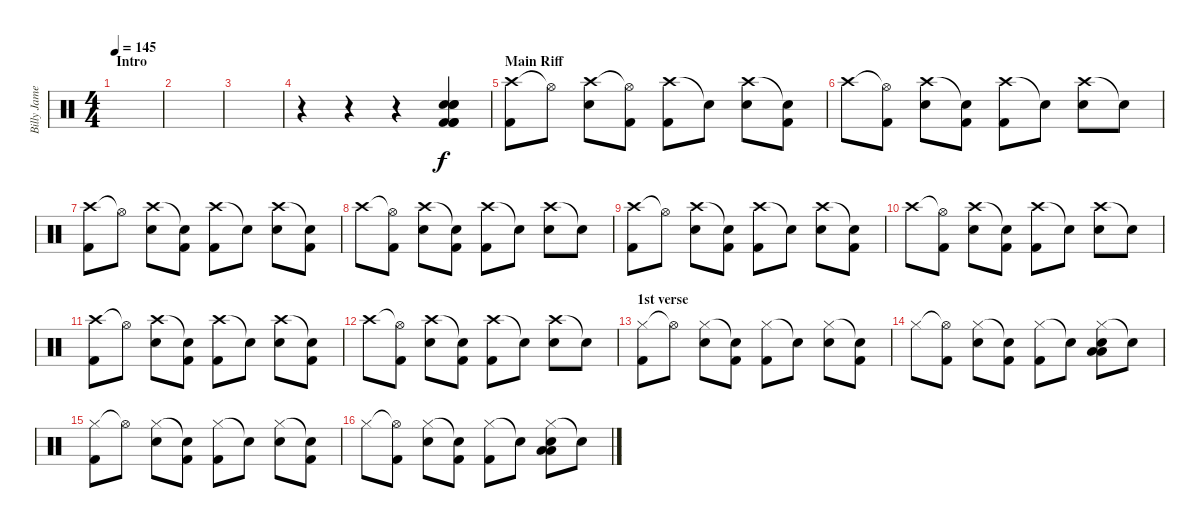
\track ("Billy James (Drums)" "Billy Jame") {instrument percussion}
\staff {score}
\articulation defaults
\ts (4 4)
\section ("" "Intro")
\tempo 145
\clef neutral
\ks c
|
|
|
r.4 r.4 r.4 ("Snare (hit) 2" "Kick (hit) 2" "Kick (hit) 2" "Kick (hit) 2" "Snare (hit) 2" "Snare (hit) 2").4 |
\section ("" "Main Riff")
("Crash high (hit)" "Kick (hit) 2").8 "Hi-Hat (open)"{t}.8 ("Crash high (hit)" "Snare (hit) 2").8 ("Hi-Hat (open)"{t} "Kick (hit) 2").8 ("Crash high (hit)" "Kick (hit) 2").8 "Snare (hit)"{t}.8 ("Crash high (hit)" "Snare (hit) 2").8 ("Snare (hit)"{t} "Kick (hit) 2").8 |
"Crash high (hit)".8 ("Hi-Hat (open)"{t} "Kick (hit) 2").8 ("Crash high (hit)" "Snare (hit) 2").8 ("Snare (hit)"{t} "Kick (hit) 2").8 ("Crash high (hit)" "Kick (hit) 2").8 "Snare (hit)"{t}.8 ("Crash high (hit)" "Snare (hit) 2").8 "Snare (hit)"{t}.8 |
("Crash high (hit)" "Kick (hit) 2").8 "Hi-Hat (open)"{t}.8 ("Crash high (hit)" "Snare (hit) 2").8 ("Snare (hit)"{t} "Kick (hit) 2").8 ("Crash high (hit)" "Kick (hit) 2").8 "Snare (hit)"{t}.8 ("Crash high (hit)" "Snare (hit) 2").8 ("Snare (hit)"{t} "Kick (hit) 2").8 |
"Crash high (hit)".8 ("Hi-Hat (open)"{t} "Kick (hit) 2").8 ("Crash high (hit)" "Snare (hit) 2").8 ("Snare (hit)"{t} "Kick (hit) 2").8 ("Crash high (hit)" "Kick (hit) 2").8 "Snare (hit)"{t}.8 ("Crash high (hit)" "Snare (hit) 2").8 "Snare (hit)"{t}.8 |
("Crash high (hit)" "Kick (hit) 2").8 "Hi-Hat (open)"{t}.8 ("Crash high (hit)" "Snare (hit) 2").8 ("Snare (hit)"{t} "Kick (hit) 2").8 ("Crash high (hit)" "Kick (hit) 2").8 "Snare (hit)"{t}.8 ("Crash high (hit)" "Snare (hit) 2").8 ("Snare (hit)"{t} "Kick (hit) 2").8 |
"Crash high (hit)".8 ("Hi-Hat (open)"{t} "Kick (hit) 2").8 ("Crash high (hit)" "Snare (hit) 2").8 ("Snare (hit)"{t} "Kick (hit) 2").8 ("Crash high (hit)" "Kick (hit) 2").8 "Snare (hit)"{t}.8 ("Crash high (hit)" "Snare (hit) 2").8 "Snare (hit)"{t}.8 |
("Crash high (hit)" "Kick (hit) 2").8 "Hi-Hat (open)"{t}.8 ("Crash high (hit)" "Snare (hit) 2").8 ("Snare (hit)"{t} "Kick (hit) 2").8 ("Crash high (hit)" "Kick (hit) 2").8 "Snare (hit)"{t}.8 ("Crash high (hit)" "Snare (hit) 2").8 ("Snare (hit)"{t} "Kick (hit) 2").8 |
"Crash high (hit)".8 ("Hi-Hat (open)"{t} "Kick (hit) 2").8 ("Crash high (hit)" "Snare (hit) 2").8 ("Snare (hit)"{t} "Kick (hit) 2").8 ("Crash high (hit)" "Kick (hit) 2").8 "Snare (hit)"{t}.8 ("Crash high (hit)" "Snare (hit) 2").8 "Snare (hit)"{t}.8 |
\section ("" "1st verse")
("Hi-Hat (closed)" "Kick (hit) 2").8 "Hi-Hat (open)"{t}.8 ("Hi-Hat (closed)" "Snare (hit) 2").8 ("Snare (hit)"{t} "Kick (hit) 2").8 ("Hi-Hat (closed)" "Kick (hit) 2").8 "Snare (hit)"{t}.8 ("Hi-Hat (closed)" "Snare (hit) 2").8 ("Snare (hit)"{t} "Kick (hit) 2").8 |
"Hi-Hat (closed)".8 ("Hi-Hat (open)"{t} "Kick (hit) 2").8 ("Hi-Hat (closed)" "Snare (hit) 2").8 ("Snare (hit)"{t} "Kick (hit) 2").8 ("Hi-Hat (closed)" "Kick (hit) 2").8 "Snare (hit)"{t}.8 ("Hi-Hat (closed)" "Low Floor Tom (hit)" "Low Floor Tom (hit)" "Snare (hit) 2").8 "Snare (hit)"{t}.8 |
("Hi-Hat (closed)" "Kick (hit) 2").8 "Hi-Hat (open)"{t}.8 ("Hi-Hat (closed)" "Snare (hit) 2").8 ("Snare (hit)"{t} "Kick (hit) 2").8 ("Hi-Hat (closed)" "Kick (hit) 2").8 "Snare (hit)"{t}.8 ("Hi-Hat (closed)" "Snare (hit) 2").8 ("Snare (hit)"{t} "Kick (hit) 2").8 |
"Hi-Hat (closed)".8 ("Hi-Hat (open)"{t} "Kick (hit) 2").8 ("Hi-Hat (closed)" "Snare (hit) 2").8 ("Snare (hit)"{t} "Kick (hit) 2").8 ("Hi-Hat (closed)" "Kick (hit) 2").8 "Snare (hit)"{t}.8 ("Hi-Hat (closed)" "Low Floor Tom (hit)" "Low Floor Tom (hit)" "Snare (hit) 2").8 "Snare (hit)"{t}.8
